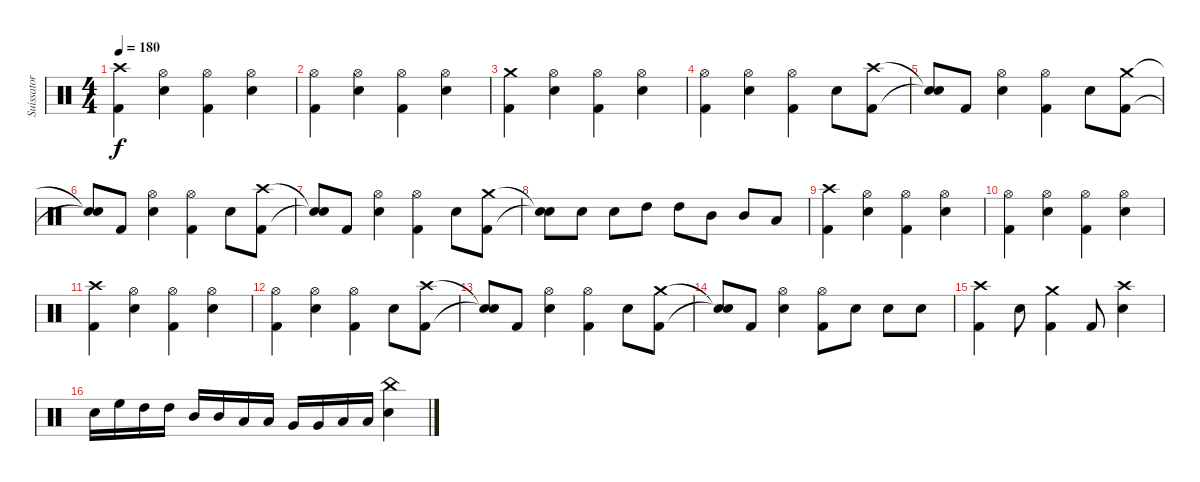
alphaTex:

\track ("Suissator" "Suissator") {instrument percussion}
\staff {score}
\articulation defaults
\ts (4 4)
\tempo 180
\clef neutral
\ks c
("Kick (hit) 2" "Crash high (hit)").4{dy f} ("Electric Snare (hit)" "Hi-Hat (open)").4 ("Kick (hit) 2" "Hi-Hat (open)").4 ("Electric Snare (hit)" "Hi-Hat (open)").4 |
("Kick (hit) 2" "Hi-Hat (open)").4 ("Electric Snare (hit)" "Hi-Hat (open)").4 ("Kick (hit) 2" "Hi-Hat (open)").4 ("Electric Snare (hit)" "Hi-Hat (open)").4 |
("Kick (hit) 2" "Crash medium (hit)").4 ("Electric Snare (hit)" "Hi-Hat (open)").4 ("Kick (hit) 2" "Hi-Hat (open)").4 ("Electric Snare (hit)" "Hi-Hat (open)").4 |
("Kick (hit) 2" "Hi-Hat (open)").4 ("Electric Snare (hit)" "Hi-Hat (open)").4 ("Kick (hit) 2" "Hi-Hat (open)").4 "Electric Snare (hit)".8 ("Kick (hit) 2" "Crash high (hit)").8 |
("Snare (hit)"{t} "Snare (hit)"{t}).8 "Kick (hit) 2".8 ("Electric Snare (hit)" "Hi-Hat (open)").4 ("Kick (hit) 2" "Hi-Hat (open)").4 "Electric Snare (hit)".8 ("Kick (hit) 2" "Crash medium (hit)").8 |
("Snare (hit)"{t} "Snare (hit)"{t}).8 "Kick (hit) 2".8 ("Electric Snare (hit)" "Hi-Hat (open)").4 ("Kick (hit) 2" "Hi-Hat (open)").4 "Electric Snare (hit)".8 ("Kick (hit) 2" "Crash high (hit)").8 |
("Snare (hit)"{t} "Snare (hit)"{t}).8 "Kick (hit) 2".8 ("Electric Snare (hit)" "Hi-Hat (open)").4 ("Kick (hit) 2" "Hi-Hat (open)").4 "Electric Snare (hit)".8 ("Kick (hit) 2" "Crash medium (hit)").8 |
("Snare (hit)"{t} "Snare (hit)"{t}).8 "Electric Snare (hit)".8 "Electric Snare (hit)".8 "High Tom (hit)".8 "High Tom (hit)".8 "Mid Tom (hit)".8 "Mid Tom (hit)".8 "Low Tom (hit)".8 |
("Kick (hit) 2" "Crash high (hit)").4 ("Electric Snare (hit)" "Hi-Hat (open)").4 ("Kick (hit) 2" "Hi-Hat (open)").4 ("Electric Snare (hit)" "Hi-Hat (open)").4 |
("Kick (hit) 2" "Hi-Hat (open)").4 ("Electric Snare (hit)" "Hi-Hat (open)").4 ("Kick (hit) 2" "Hi-Hat (open)").4 ("Electric Snare (hit)" "Hi-Hat (open)").4 |
("Kick (hit) 2" "Crash high (hit)").4 ("Electric Snare (hit)" "Hi-Hat (open)").4 ("Kick (hit) 2" "Hi-Hat (open)").4 ("Electric Snare (hit)" "Hi-Hat (open)").4 |
("Kick (hit) 2" "Hi-Hat (open)").4 ("Electric Snare (hit)" "Hi-Hat (open)").4 ("Kick (hit) 2" "Hi-Hat (open)").4 "Electric Snare (hit)".8 ("Kick (hit) 2" "Crash high (hit)").8 |
("Snare (hit)"{t} "Snare (hit)"{t}).8 "Kick (hit) 2".8 ("Electric Snare (hit)" "Hi-Hat (open)").4 ("Kick (hit) 2" "Hi-Hat (open)").4 "Electric Snare (hit)".8 ("Kick (hit) 2" "Crash medium (hit)").8 |
("Snare (hit)"{t} "Snare (hit)"{t}).8 "Kick (hit) 2".8 ("Electric Snare (hit)" "Hi-Hat (open)").4 ("Kick (hit) 2" "Hi-Hat (open)").8 "Electric Snare (hit)".8 "Electric Snare (hit)".8 "Electric Snare (hit)".8 |
("Kick (hit) 2" "Crash high (hit)").4 "Electric Snare (hit)".8 ("Kick (hit) 2" "Crash medium (hit)").4 "Kick (hit) 2".8 ("Electric Snare (hit)" "Crash high (hit)").4 |
"Electric Snare (hit)".16 "High Floor Tom (hit)".16 "High Tom (hit)".16 "High Tom (hit)".16 "Mid Tom (hit)".16 "Mid Tom (hit)".16 "Low Tom (hit)".16 "Low Tom (hit)".16 "Very Low Tom (hit)".16 "Very Low Tom (hit)".16 "Low Floor Tom (hit)".16 "Low Floor Tom (hit)".16 ("Electric Snare (hit)" "China (hit)").4
